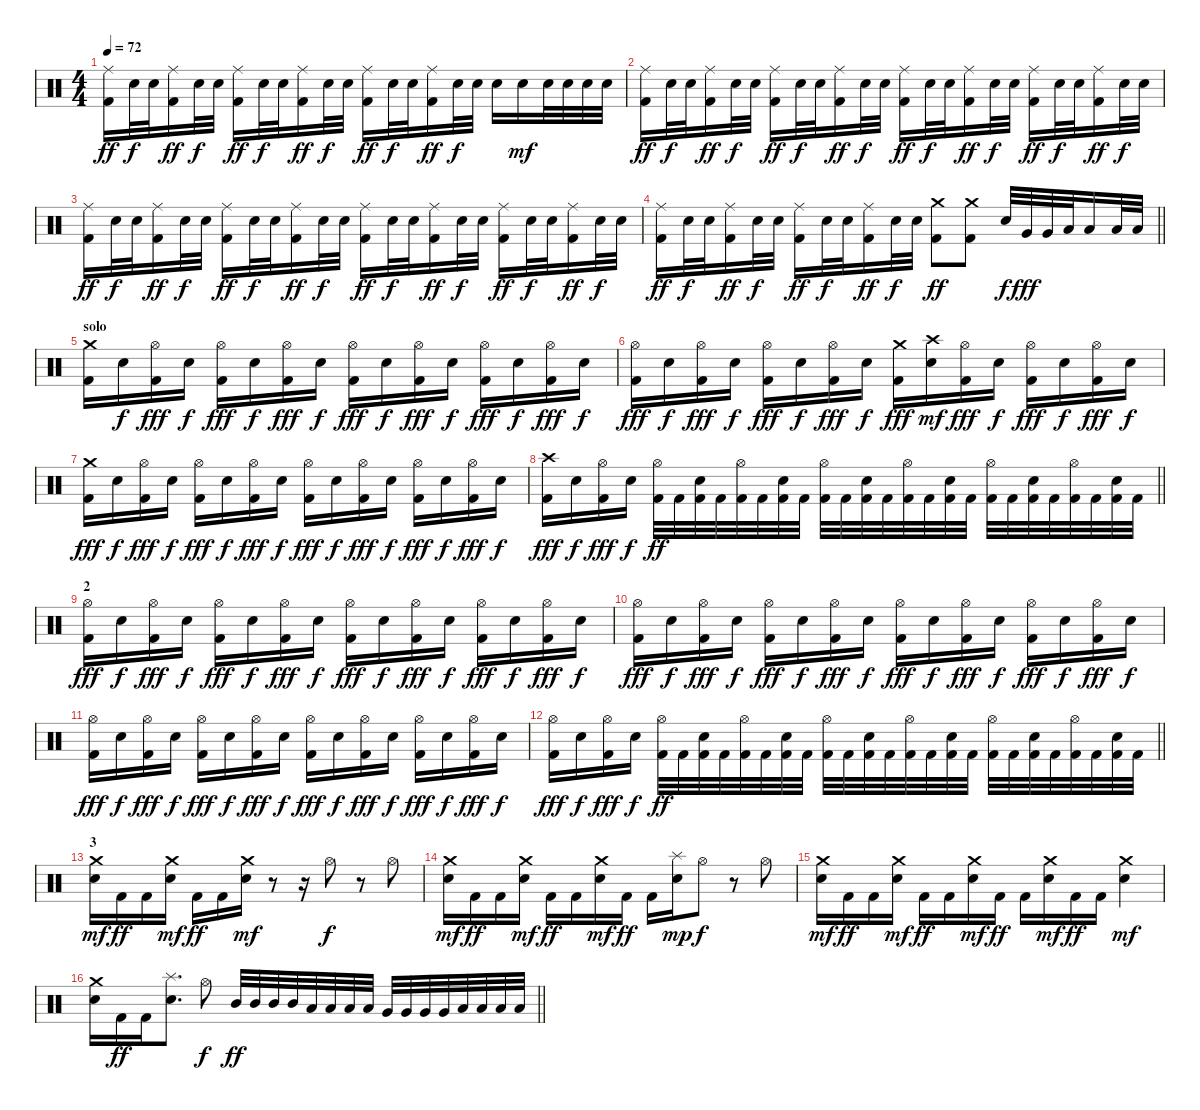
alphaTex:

\track "" {instrument percussion}
\staff {score}
\articulation defaults
\ts (4 4)
\tempo 72
\clef neutral
\ks c
("Ride (middle)" "Kick (hit) 2").16{dy ff} "Snare (hit) 2".32{dy f} "Snare (hit) 2".32 ("Ride (middle)" "Kick (hit) 2").16{dy ff} "Snare (hit) 2".32{dy f} "Snare (hit) 2".32 ("Ride (middle)" "Kick (hit) 2").16{dy ff} "Snare (hit) 2".32{dy f} "Snare (hit) 2".32 ("Ride (middle)" "Kick (hit) 2").16{dy ff} "Snare (hit) 2".32{dy f} "Snare (hit) 2".32 ("Ride (middle)" "Kick (hit) 2").16{dy ff} "Snare (hit) 2".32{dy f} "Snare (hit) 2".32 ("Ride (middle)" "Kick (hit) 2").16{dy ff} "Snare (hit) 2".32{dy f} "Snare (hit) 2".32 "Snare (hit) 2".16 "Snare (hit) 2".16{dy mf} "Snare (hit) 2".32 "Snare (hit) 2".32 "Snare (hit) 2".32 "Snare (hit) 2".32 |
("Ride (middle)" "Kick (hit) 2").16{dy ff} "Snare (hit) 2".32{dy f} "Snare (hit) 2".32 ("Ride (middle)" "Kick (hit) 2").16{dy ff} "Snare (hit) 2".32{dy f} "Snare (hit) 2".32 ("Ride (middle)" "Kick (hit) 2").16{dy ff} "Snare (hit) 2".32{dy f} "Snare (hit) 2".32 ("Ride (middle)" "Kick (hit) 2").16{dy ff} "Snare (hit) 2".32{dy f} "Snare (hit) 2".32 ("Ride (middle)" "Kick (hit) 2").16{dy ff} "Snare (hit) 2".32{dy f} "Snare (hit) 2".32 ("Ride (middle)" "Kick (hit) 2").16{dy ff} "Snare (hit) 2".32{dy f} "Snare (hit) 2".32 ("Ride (middle)" "Kick (hit) 2").16{dy ff} "Snare (hit) 2".32{dy f} "Snare (hit) 2".32 ("Ride (middle)" "Kick (hit) 2").16{dy ff} "Snare (hit) 2".32{dy f} "Snare (hit) 2".32 |
("Ride (middle)" "Kick (hit) 2").16{dy ff} "Snare (hit) 2".32{dy f} "Snare (hit) 2".32 ("Ride (middle)" "Kick (hit) 2").16{dy ff} "Snare (hit) 2".32{dy f} "Snare (hit) 2".32 ("Ride (middle)" "Kick (hit) 2").16{dy ff} "Snare (hit) 2".32{dy f} "Snare (hit) 2".32 ("Ride (middle)" "Kick (hit) 2").16{dy ff} "Snare (hit) 2".32{dy f} "Snare (hit) 2".32 ("Ride (middle)" "Kick (hit) 2").16{dy ff} "Snare (hit) 2".32{dy f} "Snare (hit) 2".32 ("Ride (middle)" "Kick (hit) 2").16{dy ff} "Snare (hit) 2".32{dy f} "Snare (hit) 2".32 ("Ride (middle)" "Kick (hit) 2").16{dy ff} "Snare (hit) 2".32{dy f} "Snare (hit) 2".32 ("Ride (middle)" "Kick (hit) 2").16{dy ff} "Snare (hit) 2".32{dy f} "Snare (hit) 2".32 |
\barLineRight lightlight
("Ride (middle)" "Kick (hit) 2").16{dy ff} "Snare (hit) 2".32{dy f} "Snare (hit) 2".32 ("Ride (middle)" "Kick (hit) 2").16{dy ff} "Snare (hit) 2".32{dy f} "Snare (hit) 2".32 ("Ride (middle)" "Kick (hit) 2").16{dy ff} "Snare (hit) 2".32{dy f} "Snare (hit) 2".32 ("Ride (middle)" "Kick (hit) 2").16{dy ff} "Snare (hit) 2".32{dy f} "Snare (hit) 2".32 ("Crash medium (hit)" "Kick (hit) 2").8{dy ff} ("Crash medium (hit)" "Kick (hit) 2").8 "Snare (hit) 2".32{dy f} "Very Low Tom (hit)".32{dy fff} "Very Low Tom (hit)".32 "Low Floor Tom (hit)".32 "Low Tom (hit)".16 "Low Tom (hit)".32 "Low Tom (hit)".32 |
\section ("" "solo")
("Crash medium (hit)" "Kick (hit) 2").16 "Snare (hit) 2".16{dy f} ("Hi-Hat (open)" "Kick (hit) 2").16{dy fff} "Snare (hit) 2".16{dy f} ("Hi-Hat (open)" "Kick (hit) 2").16{dy fff} "Snare (hit) 2".16{dy f} ("Hi-Hat (open)" "Kick (hit) 2").16{dy fff} "Snare (hit) 2".16{dy f} ("Hi-Hat (open)" "Kick (hit) 2").16{dy fff} "Snare (hit) 2".16{dy f} ("Hi-Hat (open)" "Kick (hit) 2").16{dy fff} "Snare (hit) 2".16{dy f} ("Hi-Hat (open)" "Kick (hit) 2").16{dy fff} "Snare (hit) 2".16{dy f} ("Hi-Hat (open)" "Kick (hit) 2").16{dy fff} "Snare (hit) 2".16{dy f} |
("Hi-Hat (open)" "Kick (hit) 2").16{dy fff} "Snare (hit) 2".16{dy f} ("Hi-Hat (open)" "Kick (hit) 2").16{dy fff} "Snare (hit) 2".16{dy f} ("Hi-Hat (open)" "Kick (hit) 2").16{dy fff} "Snare (hit) 2".16{dy f} ("Hi-Hat (open)" "Kick (hit) 2").16{dy fff} "Snare (hit) 2".16{dy f} ("Crash medium (hit)" "Kick (hit) 2").16{dy fff} ("Crash high (hit)" "Snare (hit) 2").16{dy mf} ("Hi-Hat (open)" "Kick (hit) 2").16{dy fff} "Snare (hit) 2".16{dy f} ("Hi-Hat (open)" "Kick (hit) 2").16{dy fff} "Snare (hit) 2".16{dy f} ("Hi-Hat (open)" "Kick (hit) 2").16{dy fff} "Snare (hit) 2".16{dy f} |
("Crash medium (hit)" "Kick (hit) 2").16{dy fff} "Snare (hit) 2".16{dy f} ("Hi-Hat (open)" "Kick (hit) 2").16{dy fff} "Snare (hit) 2".16{dy f} ("Hi-Hat (open)" "Kick (hit) 2").16{dy fff} "Snare (hit) 2".16{dy f} ("Hi-Hat (open)" "Kick (hit) 2").16{dy fff} "Snare (hit) 2".16{dy f} ("Hi-Hat (open)" "Kick (hit) 2").16{dy fff} "Snare (hit) 2".16{dy f} ("Hi-Hat (open)" "Kick (hit) 2").16{dy fff} "Snare (hit) 2".16{dy f} ("Hi-Hat (open)" "Kick (hit) 2").16{dy fff} "Snare (hit) 2".16{dy f} ("Hi-Hat (open)" "Kick (hit) 2").16{dy fff} "Snare (hit) 2".16{dy f} |
\barLineRight lightlight
("Crash high (hit)" "Kick (hit) 2").16{dy fff} "Snare (hit) 2".16{dy f} ("Hi-Hat (open)" "Kick (hit) 2").16{dy fff} "Snare (hit) 2".16{dy f} ("Hi-Hat (open)" "Kick (hit) 2").32{dy ff} "Kick (hit) 2".32 ("Snare (hit) 2" "Kick (hit) 2").32 "Kick (hit) 2".32 ("Hi-Hat (open)" "Kick (hit) 2").32 "Kick (hit) 2".32 ("Snare (hit) 2" "Kick (hit) 2").32 "Kick (hit) 2".32 ("Hi-Hat (open)" "Kick (hit) 2").32 "Kick (hit) 2".32 ("Snare (hit) 2" "Kick (hit) 2").32 "Kick (hit) 2".32 ("Hi-Hat (open)" "Kick (hit) 2").32 "Kick (hit) 2".32 ("Snare (hit) 2" "Kick (hit) 2").32 "Kick (hit) 2".32 ("Hi-Hat (open)" "Kick (hit) 2").32 "Kick (hit) 2".32 ("Snare (hit) 2" "Kick (hit) 2").32 "Kick (hit) 2".32 ("Hi-Hat (open)" "Kick (hit) 2").32 "Kick (hit) 2".32 ("Snare (hit) 2" "Kick (hit) 2").32 "Kick (hit) 2".32 |
\section ("" "2")
("Hi-Hat (open)" "Kick (hit) 2").16{dy fff} "Snare (hit) 2".16{dy f} ("Hi-Hat (open)" "Kick (hit) 2").16{dy fff} "Snare (hit) 2".16{dy f} ("Hi-Hat (open)" "Kick (hit) 2").16{dy fff} "Snare (hit) 2".16{dy f} ("Hi-Hat (open)" "Kick (hit) 2").16{dy fff} "Snare (hit) 2".16{dy f} ("Hi-Hat (open)" "Kick (hit) 2").16{dy fff} "Snare (hit) 2".16{dy f} ("Hi-Hat (open)" "Kick (hit) 2").16{dy fff} "Snare (hit) 2".16{dy f} ("Hi-Hat (open)" "Kick (hit) 2").16{dy fff} "Snare (hit) 2".16{dy f} ("Hi-Hat (open)" "Kick (hit) 2").16{dy fff} "Snare (hit) 2".16{dy f} |
("Hi-Hat (open)" "Kick (hit) 2").16{dy fff} "Snare (hit) 2".16{dy f} ("Hi-Hat (open)" "Kick (hit) 2").16{dy fff} "Snare (hit) 2".16{dy f} ("Hi-Hat (open)" "Kick (hit) 2").16{dy fff} "Snare (hit) 2".16{dy f} ("Hi-Hat (open)" "Kick (hit) 2").16{dy fff} "Snare (hit) 2".16{dy f} ("Hi-Hat (open)" "Kick (hit) 2").16{dy fff} "Snare (hit) 2".16{dy f} ("Hi-Hat (open)" "Kick (hit) 2").16{dy fff} "Snare (hit) 2".16{dy f} ("Hi-Hat (open)" "Kick (hit) 2").16{dy fff} "Snare (hit) 2".16{dy f} ("Hi-Hat (open)" "Kick (hit) 2").16{dy fff} "Snare (hit) 2".16{dy f} |
("Hi-Hat (open)" "Kick (hit) 2").16{dy fff} "Snare (hit) 2".16{dy f} ("Hi-Hat (open)" "Kick (hit) 2").16{dy fff} "Snare (hit) 2".16{dy f} ("Hi-Hat (open)" "Kick (hit) 2").16{dy fff} "Snare (hit) 2".16{dy f} ("Hi-Hat (open)" "Kick (hit) 2").16{dy fff} "Snare (hit) 2".16{dy f} ("Hi-Hat (open)" "Kick (hit) 2").16{dy fff} "Snare (hit) 2".16{dy f} ("Hi-Hat (open)" "Kick (hit) 2").16{dy fff} "Snare (hit) 2".16{dy f} ("Hi-Hat (open)" "Kick (hit) 2").16{dy fff} "Snare (hit) 2".16{dy f} ("Hi-Hat (open)" "Kick (hit) 2").16{dy fff} "Snare (hit) 2".16{dy f} |
\barLineRight lightlight
("Hi-Hat (open)" "Kick (hit) 2").16{dy fff} "Snare (hit) 2".16{dy f} ("Hi-Hat (open)" "Kick (hit) 2").16{dy fff} "Snare (hit) 2".16{dy f} ("Hi-Hat (open)" "Kick (hit) 2").32{dy ff} "Kick (hit) 2".32 ("Snare (hit) 2" "Kick (hit) 2").32 "Kick (hit) 2".32 ("Hi-Hat (open)" "Kick (hit) 2").32 "Kick (hit) 2".32 ("Snare (hit) 2" "Kick (hit) 2").32 "Kick (hit) 2".32 ("Hi-Hat (open)" "Kick (hit) 2").32 "Kick (hit) 2".32 ("Snare (hit) 2" "Kick (hit) 2").32 "Kick (hit) 2".32 ("Hi-Hat (open)" "Kick (hit) 2").32 "Kick (hit) 2".32 ("Snare (hit) 2" "Kick (hit) 2").32 "Kick (hit) 2".32 ("Hi-Hat (open)" "Kick (hit) 2").32 "Kick (hit) 2".32 ("Snare (hit) 2" "Kick (hit) 2").32 "Kick (hit) 2".32 ("Hi-Hat (open)" "Kick (hit) 2").32 "Kick (hit) 2".32 ("Snare (hit) 2" "Kick (hit) 2").32 "Kick (hit) 2".32 |
\section ("" "3")
("Crash medium (hit)" "Snare (hit) 2").16{dy mf} "Kick (hit) 2".16{dy ff} "Kick (hit) 2".16 ("Crash medium (hit)" "Snare (hit) 2").16{dy mf} "Kick (hit) 2".16{dy ff} "Kick (hit) 2".16 ("Crash medium (hit)" "Snare (hit) 2").16{dy mf} r.8 r.16 "Hi-Hat (open)".8{dy f} r.8 "Hi-Hat (open)".8 |
("Crash medium (hit)" "Snare (hit) 2").16{dy mf} "Kick (hit) 2".16{dy ff} "Kick (hit) 2".16 ("Crash medium (hit)" "Snare (hit) 2").16{dy mf} "Kick (hit) 2".16{dy ff} "Kick (hit) 2".16 ("Crash medium (hit)" "Snare (hit) 2").16{dy mf} "Kick (hit) 2".16{dy ff} "Kick (hit) 2".16 ("Splash (hit)" "Snare (hit) 2").16{dy mp} "Hi-Hat (open)".8{dy f} r.8 "Hi-Hat (open)".8 |
("Crash medium (hit)" "Snare (hit) 2").16{dy mf} "Kick (hit) 2".16{dy ff} "Kick (hit) 2".16 ("Crash medium (hit)" "Snare (hit) 2").16{dy mf} "Kick (hit) 2".16{dy ff} "Kick (hit) 2".16 ("Crash medium (hit)" "Snare (hit) 2").16{dy mf} "Kick (hit) 2".16{dy ff} "Kick (hit) 2".16 ("Crash medium (hit)" "Snare (hit) 2").16{dy mf} "Kick (hit) 2".16{dy ff} "Kick (hit) 2".16 ("Crash medium (hit)" "Snare (hit) 2").4{dy mf} |
\barLineRight lightlight
("Crash medium (hit)" "Snare (hit) 2").16 "Kick (hit) 2".16{dy ff} "Kick (hit) 2".16 ("Splash (hit)" "Snare (hit) 2").8{d} "Hi-Hat (open)".8{dy f} "Mid Tom (hit)".32{dy ff} "Mid Tom (hit)".32 "Mid Tom (hit)".32 "Mid Tom (hit)".32 "Low Tom (hit)".32 "Low Tom (hit)".32 "Low Tom (hit)".32 "Low Tom (hit)".32 "Very Low Tom (hit)".32 "Very Low Tom (hit)".32 "Very Low Tom (hit)".32 "Very Low Tom (hit)".32 "Low Floor Tom (hit)".32 "Low Floor Tom (hit)".32 "Low Floor Tom (hit)".32 "Low Floor Tom (hit)".32
